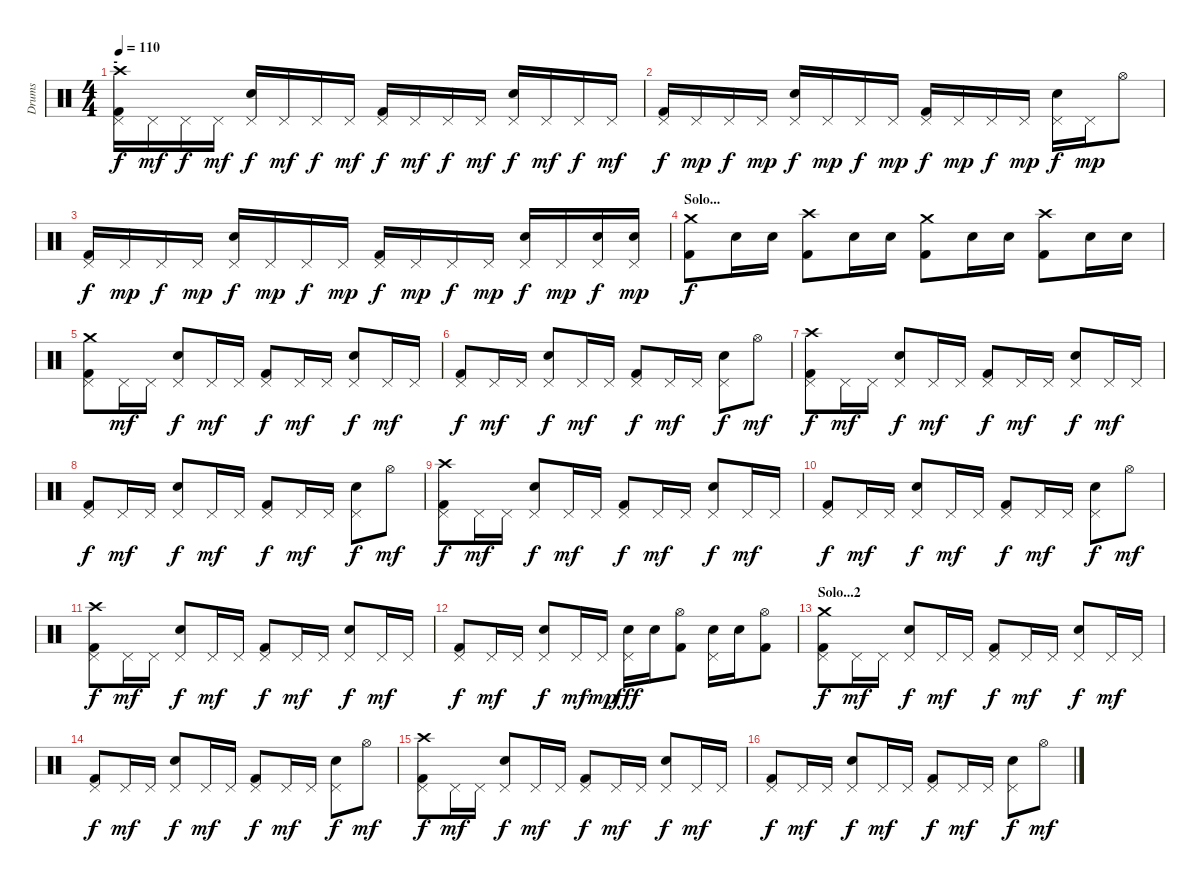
\track ("Drums" "Drums") {instrument percussion}
\staff {score}
\articulation defaults
\ts (4 4)
\section ("" "-")
\tempo 110
\clef neutral
\ks c
("Crash high (hit)" "Pedal Hi-Hat (hit)" "Kick (hit) 2").16{dy f} "Pedal Hi-Hat (hit)".16{dy mf} "Pedal Hi-Hat (hit)".16{dy f} "Pedal Hi-Hat (hit)".16{dy mf} ("Pedal Hi-Hat (hit)" "Snare (hit) 2").16{dy f} "Pedal Hi-Hat (hit)".16{dy mf} "Pedal Hi-Hat (hit)".16{dy f} "Pedal Hi-Hat (hit)".16{dy mf} ("Pedal Hi-Hat (hit)" "Kick (hit) 2").16{dy f} "Pedal Hi-Hat (hit)".16{dy mf} "Pedal Hi-Hat (hit)".16{dy f} "Pedal Hi-Hat (hit)".16{dy mf} ("Pedal Hi-Hat (hit)" "Snare (hit) 2").16{dy f} "Pedal Hi-Hat (hit)".16{dy mf} "Pedal Hi-Hat (hit)".16{dy f} "Pedal Hi-Hat (hit)".16{dy mf} |
("Pedal Hi-Hat (hit)" "Kick (hit) 2").16{dy f} "Pedal Hi-Hat (hit)".16{dy mp} "Pedal Hi-Hat (hit)".16{dy f} "Pedal Hi-Hat (hit)".16{dy mp} ("Pedal Hi-Hat (hit)" "Snare (hit) 2").16{dy f} "Pedal Hi-Hat (hit)".16{dy mp} "Pedal Hi-Hat (hit)".16{dy f} "Pedal Hi-Hat (hit)".16{dy mp} ("Pedal Hi-Hat (hit)" "Kick (hit) 2").16{dy f} "Pedal Hi-Hat (hit)".16{dy mp} "Pedal Hi-Hat (hit)".16{dy f} "Pedal Hi-Hat (hit)".16{dy mp} ("Pedal Hi-Hat (hit)" "Snare (hit) 2").16{dy f} "Pedal Hi-Hat (hit)".16{dy mp} "Hi-Hat (open)".8 |
("Pedal Hi-Hat (hit)" "Kick (hit) 2").16{dy f} "Pedal Hi-Hat (hit)".16{dy mp} "Pedal Hi-Hat (hit)".16{dy f} "Pedal Hi-Hat (hit)".16{dy mp} ("Pedal Hi-Hat (hit)" "Snare (hit) 2").16{dy f} "Pedal Hi-Hat (hit)".16{dy mp} "Pedal Hi-Hat (hit)".16{dy f} "Pedal Hi-Hat (hit)".16{dy mp} ("Pedal Hi-Hat (hit)" "Kick (hit) 2").16{dy f} "Pedal Hi-Hat (hit)".16{dy mp} "Pedal Hi-Hat (hit)".16{dy f} "Pedal Hi-Hat (hit)".16{dy mp} ("Pedal Hi-Hat (hit)" "Snare (hit) 2").16{dy f} "Pedal Hi-Hat (hit)".16{dy mp} ("Pedal Hi-Hat (hit)" "Snare (hit) 2").16{dy f} ("Pedal Hi-Hat (hit)" "Snare (hit) 2").16{dy mp} |
\section ("" "Solo...")
("Crash medium (hit)" "Kick (hit) 2").8{dy f} "Snare (hit) 2".16 "Snare (hit) 2".16 ("Crash high (hit)" "Kick (hit) 2").8 "Snare (hit) 2".16 "Snare (hit) 2".16 ("Crash medium (hit)" "Kick (hit) 2").8 "Snare (hit) 2".16 "Snare (hit) 2".16 ("Crash high (hit)" "Kick (hit) 2").8 "Snare (hit) 2".16 "Snare (hit) 2".16 |
("Crash medium (hit)" "Pedal Hi-Hat (hit)" "Kick (hit) 2").8 "Pedal Hi-Hat (hit)".16{dy mf} "Pedal Hi-Hat (hit)".16 ("Pedal Hi-Hat (hit)" "Snare (hit) 2").8{dy f} "Pedal Hi-Hat (hit)".16{dy mf} "Pedal Hi-Hat (hit)".16 ("Pedal Hi-Hat (hit)" "Kick (hit) 2").8{dy f} "Pedal Hi-Hat (hit)".16{dy mf} "Pedal Hi-Hat (hit)".16 ("Pedal Hi-Hat (hit)" "Snare (hit) 2").8{dy f} "Pedal Hi-Hat (hit)".16{dy mf} "Pedal Hi-Hat (hit)".16 |
("Pedal Hi-Hat (hit)" "Kick (hit) 2").8{dy f} "Pedal Hi-Hat (hit)".16{dy mf} "Pedal Hi-Hat (hit)".16 ("Pedal Hi-Hat (hit)" "Snare (hit) 2").8{dy f} "Pedal Hi-Hat (hit)".16{dy mf} "Pedal Hi-Hat (hit)".16 ("Pedal Hi-Hat (hit)" "Kick (hit) 2").8{dy f} "Pedal Hi-Hat (hit)".16{dy mf} "Pedal Hi-Hat (hit)".16 ("Pedal Hi-Hat (hit)" "Snare (hit) 2").8{dy f} "Hi-Hat (open)".8{dy mf} |
("Crash high (hit)" "Pedal Hi-Hat (hit)" "Kick (hit) 2").8{dy f} "Pedal Hi-Hat (hit)".16{dy mf} "Pedal Hi-Hat (hit)".16 ("Pedal Hi-Hat (hit)" "Snare (hit) 2").8{dy f} "Pedal Hi-Hat (hit)".16{dy mf} "Pedal Hi-Hat (hit)".16 ("Pedal Hi-Hat (hit)" "Kick (hit) 2").8{dy f} "Pedal Hi-Hat (hit)".16{dy mf} "Pedal Hi-Hat (hit)".16 ("Pedal Hi-Hat (hit)" "Snare (hit) 2").8{dy f} "Pedal Hi-Hat (hit)".16{dy mf} "Pedal Hi-Hat (hit)".16 |
("Pedal Hi-Hat (hit)" "Kick (hit) 2").8{dy f} "Pedal Hi-Hat (hit)".16{dy mf} "Pedal Hi-Hat (hit)".16 ("Pedal Hi-Hat (hit)" "Snare (hit) 2").8{dy f} "Pedal Hi-Hat (hit)".16{dy mf} "Pedal Hi-Hat (hit)".16 ("Pedal Hi-Hat (hit)" "Kick (hit) 2").8{dy f} "Pedal Hi-Hat (hit)".16{dy mf} "Pedal Hi-Hat (hit)".16 ("Pedal Hi-Hat (hit)" "Snare (hit) 2").8{dy f} "Hi-Hat (open)".8{dy mf} |
("Crash high (hit)" "Pedal Hi-Hat (hit)" "Kick (hit) 2").8{dy f} "Pedal Hi-Hat (hit)".16{dy mf} "Pedal Hi-Hat (hit)".16 ("Pedal Hi-Hat (hit)" "Snare (hit) 2").8{dy f} "Pedal Hi-Hat (hit)".16{dy mf} "Pedal Hi-Hat (hit)".16 ("Pedal Hi-Hat (hit)" "Kick (hit) 2").8{dy f} "Pedal Hi-Hat (hit)".16{dy mf} "Pedal Hi-Hat (hit)".16 ("Pedal Hi-Hat (hit)" "Snare (hit) 2").8{dy f} "Pedal Hi-Hat (hit)".16{dy mf} "Pedal Hi-Hat (hit)".16 |
("Pedal Hi-Hat (hit)" "Kick (hit) 2").8{dy f} "Pedal Hi-Hat (hit)".16{dy mf} "Pedal Hi-Hat (hit)".16 ("Pedal Hi-Hat (hit)" "Snare (hit) 2").8{dy f} "Pedal Hi-Hat (hit)".16{dy mf} "Pedal Hi-Hat (hit)".16 ("Pedal Hi-Hat (hit)" "Kick (hit) 2").8{dy f} "Pedal Hi-Hat (hit)".16{dy mf} "Pedal Hi-Hat (hit)".16 ("Pedal Hi-Hat (hit)" "Snare (hit) 2").8{dy f} "Hi-Hat (open)".8{dy mf} |
("Crash high (hit)" "Pedal Hi-Hat (hit)" "Kick (hit) 2").8{dy f} "Pedal Hi-Hat (hit)".16{dy mf} "Pedal Hi-Hat (hit)".16 ("Pedal Hi-Hat (hit)" "Snare (hit) 2").8{dy f} "Pedal Hi-Hat (hit)".16{dy mf} "Pedal Hi-Hat (hit)".16 ("Pedal Hi-Hat (hit)" "Kick (hit) 2").8{dy f} "Pedal Hi-Hat (hit)".16{dy mf} "Pedal Hi-Hat (hit)".16 ("Pedal Hi-Hat (hit)" "Snare (hit) 2").8{dy f} "Pedal Hi-Hat (hit)".16{dy mf} "Pedal Hi-Hat (hit)".16 |
("Pedal Hi-Hat (hit)" "Kick (hit) 2").8{dy f} "Pedal Hi-Hat (hit)".16{dy mf} "Pedal Hi-Hat (hit)".16 ("Pedal Hi-Hat (hit)" "Snare (hit) 2").8{dy f} "Pedal Hi-Hat (hit)".16{dy mf} "Pedal Hi-Hat (hit)".16{dy mp} ("Pedal Hi-Hat (hit)" "Snare (hit) 2").16{dy fff} "Snare (hit) 2".16 ("Hi-Hat (open)" "Kick (hit) 2").8 ("Pedal Hi-Hat (hit)" "Snare (hit) 2").16 "Snare (hit) 2".16 ("Hi-Hat (open)" "Kick (hit) 2").8 |
\section ("" "Solo...2")
("Crash medium (hit)" "Pedal Hi-Hat (hit)" "Kick (hit) 2").8{dy f} "Pedal Hi-Hat (hit)".16{dy mf} "Pedal Hi-Hat (hit)".16 ("Pedal Hi-Hat (hit)" "Snare (hit) 2").8{dy f} "Pedal Hi-Hat (hit)".16{dy mf} "Pedal Hi-Hat (hit)".16 ("Pedal Hi-Hat (hit)" "Kick (hit) 2").8{dy f} "Pedal Hi-Hat (hit)".16{dy mf} "Pedal Hi-Hat (hit)".16 ("Pedal Hi-Hat (hit)" "Snare (hit) 2").8{dy f} "Pedal Hi-Hat (hit)".16{dy mf} "Pedal Hi-Hat (hit)".16 |
("Pedal Hi-Hat (hit)" "Kick (hit) 2").8{dy f} "Pedal Hi-Hat (hit)".16{dy mf} "Pedal Hi-Hat (hit)".16 ("Pedal Hi-Hat (hit)" "Snare (hit) 2").8{dy f} "Pedal Hi-Hat (hit)".16{dy mf} "Pedal Hi-Hat (hit)".16 ("Pedal Hi-Hat (hit)" "Kick (hit) 2").8{dy f} "Pedal Hi-Hat (hit)".16{dy mf} "Pedal Hi-Hat (hit)".16 ("Pedal Hi-Hat (hit)" "Snare (hit) 2").8{dy f} "Hi-Hat (open)".8{dy mf} |
("Crash high (hit)" "Pedal Hi-Hat (hit)" "Kick (hit) 2").8{dy f} "Pedal Hi-Hat (hit)".16{dy mf} "Pedal Hi-Hat (hit)".16 ("Pedal Hi-Hat (hit)" "Snare (hit) 2").8{dy f} "Pedal Hi-Hat (hit)".16{dy mf} "Pedal Hi-Hat (hit)".16 ("Pedal Hi-Hat (hit)" "Kick (hit) 2").8{dy f} "Pedal Hi-Hat (hit)".16{dy mf} "Pedal Hi-Hat (hit)".16 ("Pedal Hi-Hat (hit)" "Snare (hit) 2").8{dy f} "Pedal Hi-Hat (hit)".16{dy mf} "Pedal Hi-Hat (hit)".16 |
("Pedal Hi-Hat (hit)" "Kick (hit) 2").8{dy f} "Pedal Hi-Hat (hit)".16{dy mf} "Pedal Hi-Hat (hit)".16 ("Pedal Hi-Hat (hit)" "Snare (hit) 2").8{dy f} "Pedal Hi-Hat (hit)".16{dy mf} "Pedal Hi-Hat (hit)".16 ("Pedal Hi-Hat (hit)" "Kick (hit) 2").8{dy f} "Pedal Hi-Hat (hit)".16{dy mf} "Pedal Hi-Hat (hit)".16 ("Pedal Hi-Hat (hit)" "Snare (hit) 2").8{dy f} "Hi-Hat (open)".8{dy mf}
